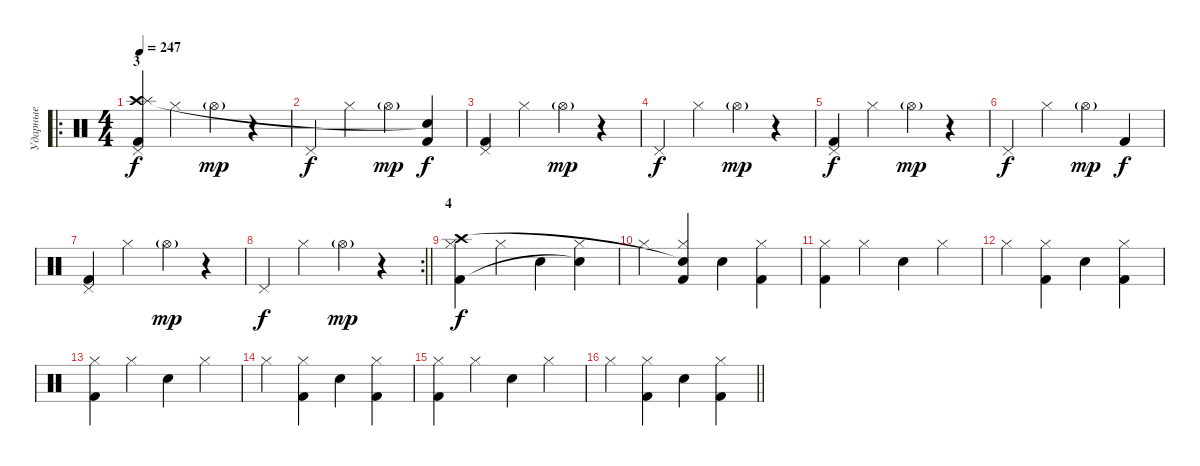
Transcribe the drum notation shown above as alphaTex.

\track ("Ударные" "Ударные") {instrument percussion}
\staff {score}
\articulation defaults
\ro
\ts (4 4)
\section ("" " 3")
\tempo 247
\clef neutral
\ks c
("Pedal Hi-Hat (hit)" "Crash high (hit)" "Splash (hit)" "Kick (hit) 2").4{dy f} "Hi-Hat (closed)".4 "Hi-Hat (open)"{g}.4{dy mp} r.4 |
"Pedal Hi-Hat (hit)".4{dy f} "Hi-Hat (closed)".4 "Hi-Hat (open)"{g}.4{dy mp} ("Kick (hit) 2" "Snare (hit)"{t}).4{dy f} |
("Pedal Hi-Hat (hit)" "Kick (hit) 2").4 "Hi-Hat (closed)".4 "Hi-Hat (open)"{g}.4{dy mp} r.4 |
"Pedal Hi-Hat (hit)".4{dy f} "Hi-Hat (closed)".4 "Hi-Hat (open)"{g}.4{dy mp} r.4 |
("Pedal Hi-Hat (hit)" "Kick (hit) 2").4{dy f} "Hi-Hat (closed)".4 "Hi-Hat (open)"{g}.4{dy mp} r.4 |
"Pedal Hi-Hat (hit)".4{dy f} "Hi-Hat (closed)".4 "Hi-Hat (open)"{g}.4{dy mp} "Kick (hit) 2".4{dy f} |
("Pedal Hi-Hat (hit)" "Kick (hit) 2").4 "Hi-Hat (closed)".4 "Hi-Hat (open)"{g}.4{dy mp} r.4 |
\rc 2
\barLineRight lightlight "Pedal Hi-Hat (hit)".4{dy f} "Hi-Hat (closed)".4 "Hi-Hat (open)"{g}.4{dy mp}
r.4 |
\section ("" "4")
("Hi-Hat (closed)" "Kick (hit) 2" "Crash high (hit)").4{dy f} "Hi-Hat (closed)".4 "Snare (hit) 2".4 ("Hi-Hat (closed)" "Snare (hit)"{t}).4 |
"Hi-Hat (closed)".4 ("Hi-Hat (closed)" "Kick (hit) 2" "Snare (hit)"{t}).4 "Snare (hit) 2".4 ("Hi-Hat (closed)" "Kick (hit) 2").4 |
("Hi-Hat (closed)" "Kick (hit) 2").4 "Hi-Hat (closed)".4 "Snare (hit) 2".4 "Hi-Hat (closed)".4 |
"Hi-Hat (closed)".4 ("Hi-Hat (closed)" "Kick (hit) 2").4 "Snare (hit) 2".4 ("Hi-Hat (closed)" "Kick (hit) 2").4 |
("Hi-Hat (closed)" "Kick (hit) 2").4 "Hi-Hat (closed)".4 "Snare (hit) 2".4 "Hi-Hat (closed)".4 |
"Hi-Hat (closed)".4 ("Hi-Hat (closed)" "Kick (hit) 2").4 "Snare (hit) 2".4 ("Hi-Hat (closed)" "Kick (hit) 2").4 |
("Hi-Hat (closed)" "Kick (hit) 2").4 "Hi-Hat (closed)".4 "Snare (hit) 2".4 "Hi-Hat (closed)".4 |
\barLineRight lightlight "Hi-Hat (closed)".4
("Hi-Hat (closed)" "Kick (hit) 2").4 "Snare (hit) 2".4 ("Hi-Hat (closed)" "Kick (hit) 2").4
